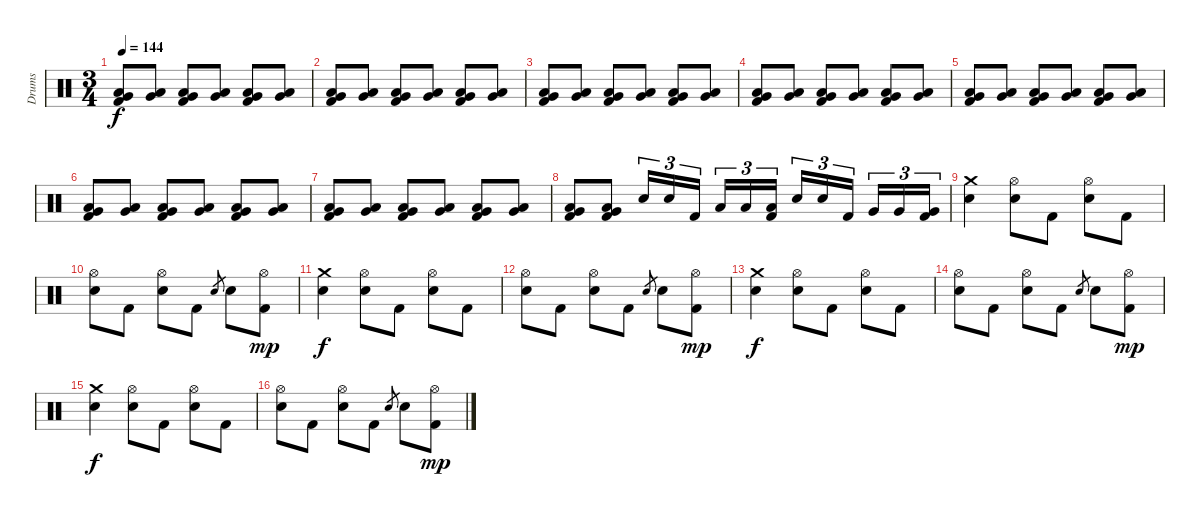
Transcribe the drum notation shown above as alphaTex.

\track ("Drums" "Drums") {instrument percussion}
\staff {score}
\articulation defaults
\ts (3 4)
\tempo 144
\clef neutral
\ks c
("Low Tom (hit)" "Very Low Tom (hit)" "Kick (hit) 2").8{dy f volume 16} ("Low Tom (hit)" "Very Low Tom (hit)").8 ("Low Tom (hit)" "Very Low Tom (hit)" "Kick (hit) 2").8 ("Low Tom (hit)" "Very Low Tom (hit)").8 ("Low Tom (hit)" "Very Low Tom (hit)" "Kick (hit) 2").8 ("Low Tom (hit)" "Very Low Tom (hit)").8 |
("Low Tom (hit)" "Very Low Tom (hit)" "Kick (hit) 2").8 ("Low Tom (hit)" "Very Low Tom (hit)").8 ("Low Tom (hit)" "Very Low Tom (hit)" "Kick (hit) 2").8 ("Low Tom (hit)" "Very Low Tom (hit)").8 ("Low Tom (hit)" "Very Low Tom (hit)" "Kick (hit) 2").8 ("Low Tom (hit)" "Very Low Tom (hit)").8 |
("Low Tom (hit)" "Very Low Tom (hit)" "Kick (hit) 2").8 ("Low Tom (hit)" "Very Low Tom (hit)").8 ("Low Tom (hit)" "Very Low Tom (hit)" "Kick (hit) 2").8 ("Low Tom (hit)" "Very Low Tom (hit)").8 ("Low Tom (hit)" "Very Low Tom (hit)" "Kick (hit) 2").8 ("Low Tom (hit)" "Very Low Tom (hit)").8 |
("Low Tom (hit)" "Very Low Tom (hit)" "Kick (hit) 2").8 ("Low Tom (hit)" "Very Low Tom (hit)").8 ("Low Tom (hit)" "Very Low Tom (hit)" "Kick (hit) 2").8 ("Low Tom (hit)" "Very Low Tom (hit)").8 ("Low Tom (hit)" "Very Low Tom (hit)" "Kick (hit) 2").8 ("Low Tom (hit)" "Very Low Tom (hit)").8 |
("Low Tom (hit)" "Very Low Tom (hit)" "Kick (hit) 2").8 ("Low Tom (hit)" "Very Low Tom (hit)").8 ("Low Tom (hit)" "Very Low Tom (hit)" "Kick (hit) 2").8 ("Low Tom (hit)" "Very Low Tom (hit)").8 ("Low Tom (hit)" "Very Low Tom (hit)" "Kick (hit) 2").8 ("Low Tom (hit)" "Very Low Tom (hit)").8 |
("Low Tom (hit)" "Very Low Tom (hit)" "Kick (hit) 2").8 ("Low Tom (hit)" "Very Low Tom (hit)").8 ("Low Tom (hit)" "Very Low Tom (hit)" "Kick (hit) 2").8 ("Low Tom (hit)" "Very Low Tom (hit)").8 ("Low Tom (hit)" "Very Low Tom (hit)" "Kick (hit) 2").8 ("Low Tom (hit)" "Very Low Tom (hit)").8 |
("Low Tom (hit)" "Very Low Tom (hit)" "Kick (hit) 2").8 ("Low Tom (hit)" "Very Low Tom (hit)").8 ("Low Tom (hit)" "Very Low Tom (hit)" "Kick (hit) 2").8 ("Low Tom (hit)" "Very Low Tom (hit)").8 ("Low Tom (hit)" "Very Low Tom (hit)" "Kick (hit) 2").8 ("Low Tom (hit)" "Very Low Tom (hit)").8 |
("Low Tom (hit)" "Very Low Tom (hit)" "Kick (hit) 2").8 ("Low Tom (hit)" "Very Low Tom (hit)" "Kick (hit) 2").8 "Snare (hit) 2".16{tu (3 2)} "Snare (hit) 2".16{tu (3 2)} "Kick (hit) 2".16{tu (3 2)} "Low Tom (hit)".16{tu (3 2)} "Low Tom (hit)".16{tu (3 2)} ("Low Tom (hit)" "Kick (hit) 2").16{tu (3 2)} "Snare (hit) 2".16{tu (3 2)} "Snare (hit) 2".16{tu (3 2)} "Kick (hit) 2".16{tu (3 2)} "Very Low Tom (hit)".16{tu (3 2)} "Very Low Tom (hit)".16{tu (3 2)} ("Very Low Tom (hit)" "Kick (hit) 2").16{tu (3 2)} |
("Crash medium (hit)" "Snare (hit) 2").4 ("Hi-Hat (open)" "Snare (hit) 2").8 "Kick (hit) 2".8 ("Hi-Hat (open)" "Snare (hit) 2").8 "Kick (hit) 2".8 |
("Hi-Hat (open)" "Snare (hit) 2").8 "Kick (hit) 2".8 ("Hi-Hat (open)" "Snare (hit) 2").8 "Kick (hit) 2".8 "Snare (hit) 2".8{gr} "Snare (hit) 2".8 ("Hi-Hat (open)" "Kick (hit) 2").8{dy mp} |
("Crash medium (hit)" "Snare (hit) 2").4{dy f} ("Hi-Hat (open)" "Snare (hit) 2").8 "Kick (hit) 2".8 ("Hi-Hat (open)" "Snare (hit) 2").8 "Kick (hit) 2".8 |
("Hi-Hat (open)" "Snare (hit) 2").8 "Kick (hit) 2".8 ("Hi-Hat (open)" "Snare (hit) 2").8 "Kick (hit) 2".8 "Snare (hit) 2".8{gr} "Snare (hit) 2".8 ("Hi-Hat (open)" "Kick (hit) 2").8{dy mp} |
("Crash medium (hit)" "Snare (hit) 2").4{dy f} ("Hi-Hat (open)" "Snare (hit) 2").8 "Kick (hit) 2".8 ("Hi-Hat (open)" "Snare (hit) 2").8 "Kick (hit) 2".8 |
("Hi-Hat (open)" "Snare (hit) 2").8 "Kick (hit) 2".8 ("Hi-Hat (open)" "Snare (hit) 2").8 "Kick (hit) 2".8 "Snare (hit) 2".8{gr} "Snare (hit) 2".8 ("Hi-Hat (open)" "Kick (hit) 2").8{dy mp} |
("Crash medium (hit)" "Snare (hit) 2").4{dy f} ("Hi-Hat (open)" "Snare (hit) 2").8 "Kick (hit) 2".8 ("Hi-Hat (open)" "Snare (hit) 2").8 "Kick (hit) 2".8 |
("Hi-Hat (open)" "Snare (hit) 2").8 "Kick (hit) 2".8 ("Hi-Hat (open)" "Snare (hit) 2").8 "Kick (hit) 2".8 "Snare (hit) 2".8{gr} "Snare (hit) 2".8 ("Hi-Hat (open)" "Kick (hit) 2").8{dy mp}
